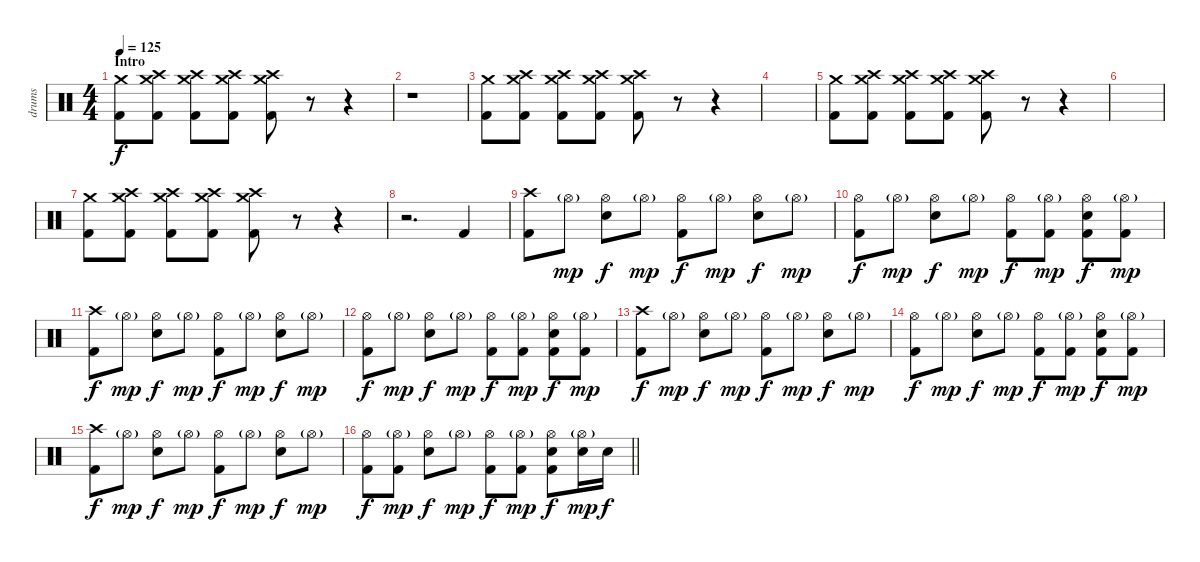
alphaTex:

\track ("drums" "drums") {instrument percussion}
\staff {score}
\articulation defaults
\ts (4 4)
\section ("" "Intro")
\tempo 125
\clef neutral
\ks c
("Crash medium (hit)" "Kick (hit) 2").8{dy f} ("Crash medium (hit)" "Crash high (hit)" "Kick (hit) 2").8 ("Crash medium (hit)" "Crash high (hit)" "Kick (hit) 2").8 ("Crash medium (hit)" "Crash high (hit)" "Kick (hit) 2").8 ("Crash medium (hit)" "Crash high (hit)" "Kick (hit) 2").8 r.8 r.4 |
r.1 |
("Crash medium (hit)" "Kick (hit) 2").8 ("Crash medium (hit)" "Crash high (hit)" "Kick (hit) 2").8 ("Crash medium (hit)" "Crash high (hit)" "Kick (hit) 2").8 ("Crash medium (hit)" "Crash high (hit)" "Kick (hit) 2").8 ("Crash medium (hit)" "Crash high (hit)" "Kick (hit) 2").8 r.8 r.4 |
|
("Crash medium (hit)" "Kick (hit) 2").8 ("Crash medium (hit)" "Crash high (hit)" "Kick (hit) 2").8 ("Crash medium (hit)" "Crash high (hit)" "Kick (hit) 2").8 ("Crash medium (hit)" "Crash high (hit)" "Kick (hit) 2").8 ("Crash medium (hit)" "Crash high (hit)" "Kick (hit) 2").8 r.8 r.4 |
|
("Crash medium (hit)" "Kick (hit) 2").8 ("Crash medium (hit)" "Crash high (hit)" "Kick (hit) 2").8 ("Crash medium (hit)" "Crash high (hit)" "Kick (hit) 2").8 ("Crash medium (hit)" "Crash high (hit)" "Kick (hit) 2").8 ("Crash medium (hit)" "Crash high (hit)" "Kick (hit) 2").8 r.8 r.4 |
r.2{d} "Kick (hit) 2".4 |
("Crash high (hit)" "Kick (hit) 2").8 "Hi-Hat (open)"{g}.8{dy mp} ("Hi-Hat (open)" "Snare (hit) 2").8{dy f} "Hi-Hat (open)"{g}.8{dy mp} ("Hi-Hat (open)" "Kick (hit) 2").8{dy f} "Hi-Hat (open)"{g}.8{dy mp} ("Hi-Hat (open)" "Snare (hit) 2").8{dy f} "Hi-Hat (open)"{g}.8{dy mp} |
("Hi-Hat (open)" "Kick (hit) 2").8{dy f} "Hi-Hat (open)"{g}.8{dy mp} ("Hi-Hat (open)" "Snare (hit) 2").8{dy f} "Hi-Hat (open)"{g}.8{dy mp} ("Hi-Hat (open)" "Kick (hit) 2").8{dy f} ("Hi-Hat (open)"{g} "Kick (hit) 2").8{dy mp} ("Hi-Hat (open)" "Snare (hit) 2" "Kick (hit) 2").8{dy f} ("Hi-Hat (open)"{g} "Kick (hit) 2").8{dy mp} |
("Crash high (hit)" "Kick (hit) 2").8{dy f} "Hi-Hat (open)"{g}.8{dy mp} ("Hi-Hat (open)" "Snare (hit) 2").8{dy f} "Hi-Hat (open)"{g}.8{dy mp} ("Hi-Hat (open)" "Kick (hit) 2").8{dy f} "Hi-Hat (open)"{g}.8{dy mp} ("Hi-Hat (open)" "Snare (hit) 2").8{dy f} "Hi-Hat (open)"{g}.8{dy mp} |
("Hi-Hat (open)" "Kick (hit) 2").8{dy f} "Hi-Hat (open)"{g}.8{dy mp} ("Hi-Hat (open)" "Snare (hit) 2").8{dy f} "Hi-Hat (open)"{g}.8{dy mp} ("Hi-Hat (open)" "Kick (hit) 2").8{dy f} ("Hi-Hat (open)"{g} "Kick (hit) 2").8{dy mp} ("Hi-Hat (open)" "Snare (hit) 2" "Kick (hit) 2").8{dy f} ("Hi-Hat (open)"{g} "Kick (hit) 2").8{dy mp} |
("Crash high (hit)" "Kick (hit) 2").8{dy f} "Hi-Hat (open)"{g}.8{dy mp} ("Hi-Hat (open)" "Snare (hit) 2").8{dy f} "Hi-Hat (open)"{g}.8{dy mp} ("Hi-Hat (open)" "Kick (hit) 2").8{dy f} "Hi-Hat (open)"{g}.8{dy mp} ("Hi-Hat (open)" "Snare (hit) 2").8{dy f} "Hi-Hat (open)"{g}.8{dy mp} |
("Hi-Hat (open)" "Kick (hit) 2").8{dy f} "Hi-Hat (open)"{g}.8{dy mp} ("Hi-Hat (open)" "Snare (hit) 2").8{dy f} "Hi-Hat (open)"{g}.8{dy mp} ("Hi-Hat (open)" "Kick (hit) 2").8{dy f} ("Hi-Hat (open)"{g} "Kick (hit) 2").8{dy mp} ("Hi-Hat (open)" "Snare (hit) 2" "Kick (hit) 2").8{dy f} ("Hi-Hat (open)"{g} "Kick (hit) 2").8{dy mp} |
("Crash high (hit)" "Kick (hit) 2").8{dy f} "Hi-Hat (open)"{g}.8{dy mp} ("Hi-Hat (open)" "Snare (hit) 2").8{dy f} "Hi-Hat (open)"{g}.8{dy mp} ("Hi-Hat (open)" "Kick (hit) 2").8{dy f} "Hi-Hat (open)"{g}.8{dy mp} ("Hi-Hat (open)" "Snare (hit) 2").8{dy f} "Hi-Hat (open)"{g}.8{dy mp} |
\barLineRight lightlight
("Hi-Hat (open)" "Kick (hit) 2").8{dy f} ("Hi-Hat (open)"{g} "Kick (hit) 2").8{dy mp} ("Hi-Hat (open)" "Snare (hit) 2").8{dy f} "Hi-Hat (open)"{g}.8{dy mp} ("Hi-Hat (open)" "Kick (hit) 2").8{dy f} ("Hi-Hat (open)"{g} "Kick (hit) 2").8{dy mp} ("Hi-Hat (open)" "Snare (hit) 2" "Kick (hit) 2").8{dy f} ("Hi-Hat (open)"{g} "Snare (hit) 2").16{dy mp} "Snare (hit) 2".16{dy f}
